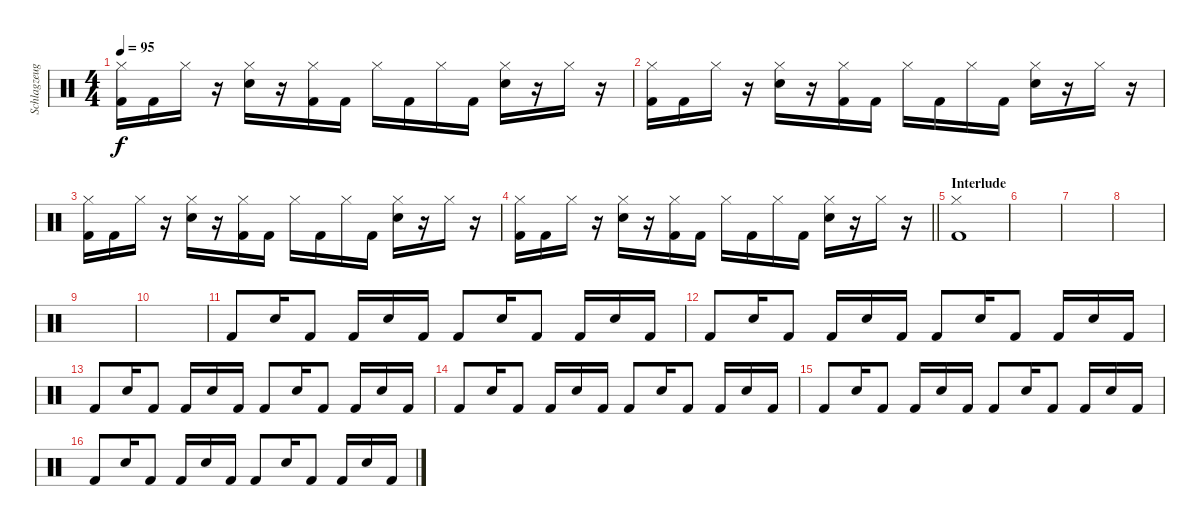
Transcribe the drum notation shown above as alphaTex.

\track ("Schlagzeug" "Schlagzeug") {instrument percussion}
\staff {score}
\articulation defaults
\ts (4 4)
\tempo 95
\clef neutral
\ks c
("Hi-Hat (closed)" "Kick (hit) 2").16{dy f} "Kick (hit) 2".16 "Hi-Hat (closed)".16 r.16 ("Hi-Hat (closed)" "Snare (hit) 2").16 r.16 ("Hi-Hat (closed)" "Kick (hit) 2").16 "Kick (hit) 2".16 "Hi-Hat (closed)".16 "Kick (hit) 2".16 "Hi-Hat (closed)".16 "Kick (hit) 2".16 ("Hi-Hat (closed)" "Snare (hit) 2").16 r.16 "Hi-Hat (closed)".16 r.16 |
("Hi-Hat (closed)" "Kick (hit) 2").16 "Kick (hit) 2".16 "Hi-Hat (closed)".16 r.16 ("Hi-Hat (closed)" "Snare (hit) 2").16 r.16 ("Hi-Hat (closed)" "Kick (hit) 2").16 "Kick (hit) 2".16 "Hi-Hat (closed)".16 "Kick (hit) 2".16 "Hi-Hat (closed)".16 "Kick (hit) 2".16 ("Hi-Hat (closed)" "Snare (hit) 2").16 r.16 "Hi-Hat (closed)".16 r.16 |
("Hi-Hat (closed)" "Kick (hit) 2").16 "Kick (hit) 2".16 "Hi-Hat (closed)".16 r.16 ("Hi-Hat (closed)" "Snare (hit) 2").16 r.16 ("Hi-Hat (closed)" "Kick (hit) 2").16 "Kick (hit) 2".16 "Hi-Hat (closed)".16 "Kick (hit) 2".16 "Hi-Hat (closed)".16 "Kick (hit) 2".16 ("Hi-Hat (closed)" "Snare (hit) 2").16 r.16 "Hi-Hat (closed)".16 r.16 |
\barLineRight lightlight
("Hi-Hat (closed)" "Kick (hit) 2").16 "Kick (hit) 2".16 "Hi-Hat (closed)".16 r.16 ("Hi-Hat (closed)" "Snare (hit) 2").16 r.16 ("Hi-Hat (closed)" "Kick (hit) 2").16 "Kick (hit) 2".16 "Hi-Hat (closed)".16 "Kick (hit) 2".16 "Hi-Hat (closed)".16 "Kick (hit) 2".16 ("Hi-Hat (closed)" "Snare (hit) 2").16 r.16 "Hi-Hat (closed)".16 r.16 |
\section ("" "Interlude")
("Hi-Hat (closed)" "Kick (hit) 2").1 |
|
|
|
|
|
"Kick (hit) 2".8 "Snare (hit) 2".16 "Kick (hit) 2".8 "Kick (hit) 2".16 "Snare (hit) 2".16 "Kick (hit) 2".16 "Kick (hit) 2".8 "Snare (hit) 2".16 "Kick (hit) 2".8 "Kick (hit) 2".16 "Snare (hit) 2".16 "Kick (hit) 2".16 |
"Kick (hit) 2".8 "Snare (hit) 2".16 "Kick (hit) 2".8 "Kick (hit) 2".16 "Snare (hit) 2".16 "Kick (hit) 2".16 "Kick (hit) 2".8 "Snare (hit) 2".16 "Kick (hit) 2".8 "Kick (hit) 2".16 "Snare (hit) 2".16 "Kick (hit) 2".16 |
"Kick (hit) 2".8 "Snare (hit) 2".16 "Kick (hit) 2".8 "Kick (hit) 2".16 "Snare (hit) 2".16 "Kick (hit) 2".16 "Kick (hit) 2".8 "Snare (hit) 2".16 "Kick (hit) 2".8 "Kick (hit) 2".16 "Snare (hit) 2".16 "Kick (hit) 2".16 |
"Kick (hit) 2".8 "Snare (hit) 2".16 "Kick (hit) 2".8 "Kick (hit) 2".16 "Snare (hit) 2".16 "Kick (hit) 2".16 "Kick (hit) 2".8 "Snare (hit) 2".16 "Kick (hit) 2".8 "Kick (hit) 2".16 "Snare (hit) 2".16 "Kick (hit) 2".16 |
"Kick (hit) 2".8 "Snare (hit) 2".16 "Kick (hit) 2".8 "Kick (hit) 2".16 "Snare (hit) 2".16 "Kick (hit) 2".16 "Kick (hit) 2".8 "Snare (hit) 2".16 "Kick (hit) 2".8 "Kick (hit) 2".16 "Snare (hit) 2".16 "Kick (hit) 2".16 |
"Kick (hit) 2".8 "Snare (hit) 2".16 "Kick (hit) 2".8 "Kick (hit) 2".16 "Snare (hit) 2".16 "Kick (hit) 2".16 "Kick (hit) 2".8 "Snare (hit) 2".16 "Kick (hit) 2".8 "Kick (hit) 2".16 "Snare (hit) 2".16 "Kick (hit) 2".16
